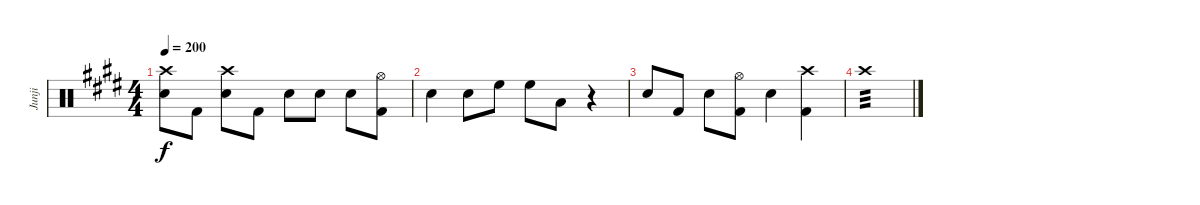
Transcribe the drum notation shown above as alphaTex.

\track ("Junji" "Junji") {instrument percussion}
\staff {score}
\articulation defaults
\ts (4 4)
\tempo 200
\clef neutral
\ks e
("Crash high (hit)" "Snare (hit) 2").8{dy f} "Kick (hit) 2".8 ("Crash high (hit)" "Snare (hit) 2").8 "Kick (hit) 2".8 "Snare (hit) 2".8 "Snare (hit) 2".8 "Snare (hit) 2".8 ("Hi-Hat (open)" "Kick (hit) 2").8 |
"Snare (hit)"{x}.4 "Snare (hit) 2".8 "High Floor Tom (hit)".8 "High Floor Tom (hit)".8 "Low Tom (hit)".8 r.4 |
"Snare (hit) 2".8 "Kick (hit) 2".8 "Snare (hit) 2".8 ("Hi-Hat (open)" "Kick (hit) 2").8 "Snare (hit)"{x}.4 ("Crash high (hit)" "Kick (hit) 2").4 |
"Crash high (hit)".1{tp 3}
